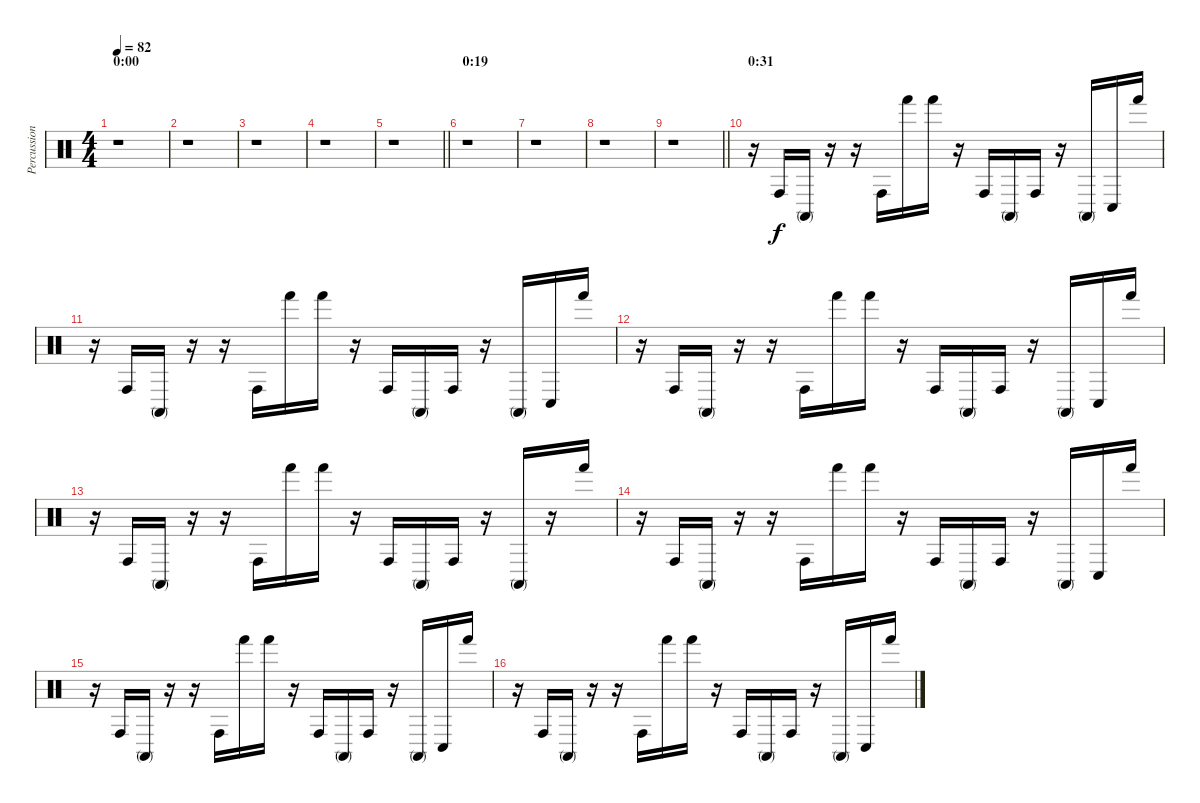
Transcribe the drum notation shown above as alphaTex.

\track ("Percussion" "Percussion") {instrument percussion}
\staff {score}
\articulation defaults
\ts (4 4)
\section ("" "0:00")
\tempo 82
\clef neutral
\ks c
r.1{dy f} |
r.1 |
r.1 |
r.1 |
\barLineRight lightlight
r.1 |
\section ("" "0:19")
r.1 |
r.1 |
r.1 |
\barLineRight lightlight
r.1 |
\section ("" "0:31")
r.16 "Conga high (hit)".16 "Conga high (mute)".16 r.16 r.16 "Conga high (hit)".16 "Hand (hit)".16 "Hand (hit)".16 r.16 "Conga high (hit)".16 "Conga high (mute)".16 "Conga high (hit)".16 r.16 "Conga high (mute)".16 "Conga low (hit)".16 "Hand (hit)".16 |
r.16 "Conga high (hit)".16 "Conga high (mute)".16 r.16 r.16 "Conga high (hit)".16 "Hand (hit)".16 "Hand (hit)".16 r.16 "Conga high (hit)".16 "Conga high (mute)".16 "Conga high (hit)".16 r.16 "Conga high (mute)".16 "Conga low (hit)".16 "Hand (hit)".16 |
r.16 "Conga high (hit)".16 "Conga high (mute)".16 r.16 r.16 "Conga high (hit)".16 "Hand (hit)".16 "Hand (hit)".16 r.16 "Conga high (hit)".16 "Conga high (mute)".16 "Conga high (hit)".16 r.16 "Conga high (mute)".16 "Conga low (hit)".16 "Hand (hit)".16 |
r.16 "Conga high (hit)".16 "Conga high (mute)".16 r.16 r.16 "Conga high (hit)".16 "Hand (hit)".16 "Hand (hit)".16 r.16 "Conga high (hit)".16 "Conga high (mute)".16 "Conga high (hit)".16 r.16 "Conga high (mute)".16 r.16 "Hand (hit)".16 |
r.16 "Conga high (hit)".16 "Conga high (mute)".16 r.16 r.16 "Conga high (hit)".16 "Hand (hit)".16 "Hand (hit)".16 r.16 "Conga high (hit)".16 "Conga high (mute)".16 "Conga high (hit)".16 r.16 "Conga high (mute)".16 "Conga low (hit)".16 "Hand (hit)".16 |
r.16 "Conga high (hit)".16 "Conga high (mute)".16 r.16 r.16 "Conga high (hit)".16 "Hand (hit)".16 "Hand (hit)".16 r.16 "Conga high (hit)".16 "Conga high (mute)".16 "Conga high (hit)".16 r.16 "Conga high (mute)".16 "Conga low (hit)".16 "Hand (hit)".16 |
r.16 "Conga high (hit)".16 "Conga high (mute)".16 r.16 r.16 "Conga high (hit)".16 "Hand (hit)".16 "Hand (hit)".16 r.16 "Conga high (hit)".16 "Conga high (mute)".16 "Conga high (hit)".16 r.16 "Conga high (mute)".16 "Conga low (hit)".16 "Hand (hit)".16
